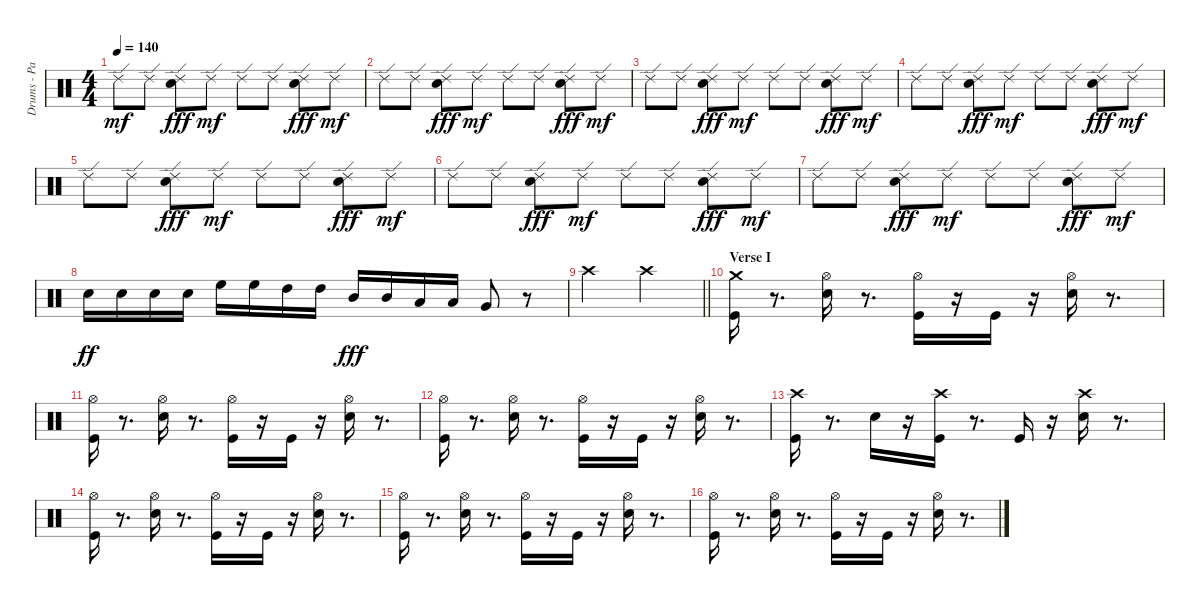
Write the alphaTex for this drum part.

\track ("Drums - Paice" "Drums - Pa") {instrument percussion}
\staff {score}
\articulation defaults
\ts (4 4)
\tempo 140
\clef neutral
\ks c "Ride (edge) 2".8{dy mf} "Ride (edge) 2".8
("Ride (edge) 2" "Electric Snare (hit)").8{dy fff} "Ride (edge) 2".8{dy mf} "Ride (edge) 2".8 "Ride (edge) 2".8 ("Ride (edge) 2" "Electric Snare (hit)").8{dy fff} "Ride (edge) 2".8{dy mf} |
"Ride (edge) 2".8 "Ride (edge) 2".8 ("Ride (edge) 2" "Electric Snare (hit)").8{dy fff} "Ride (edge) 2".8{dy mf} "Ride (edge) 2".8 "Ride (edge) 2".8 ("Ride (edge) 2" "Electric Snare (hit)").8{dy fff} "Ride (edge) 2".8{dy mf} |
"Ride (edge) 2".8 "Ride (edge) 2".8 ("Ride (edge) 2" "Electric Snare (hit)").8{dy fff} "Ride (edge) 2".8{dy mf} "Ride (edge) 2".8 "Ride (edge) 2".8 ("Ride (edge) 2" "Electric Snare (hit)").8{dy fff} "Ride (edge) 2".8{dy mf} |
"Ride (edge) 2".8 "Ride (edge) 2".8 ("Ride (edge) 2" "Electric Snare (hit)").8{dy fff} "Ride (edge) 2".8{dy mf} "Ride (edge) 2".8 "Ride (edge) 2".8 ("Ride (edge) 2" "Electric Snare (hit)").8{dy fff} "Ride (edge) 2".8{dy mf} |
"Ride (edge) 2".8 "Ride (edge) 2".8 ("Ride (edge) 2" "Electric Snare (hit)").8{dy fff} "Ride (edge) 2".8{dy mf} "Ride (edge) 2".8 "Ride (edge) 2".8 ("Ride (edge) 2" "Electric Snare (hit)").8{dy fff} "Ride (edge) 2".8{dy mf} |
"Ride (edge) 2".8 "Ride (edge) 2".8 ("Ride (edge) 2" "Electric Snare (hit)").8{dy fff} "Ride (edge) 2".8{dy mf} "Ride (edge) 2".8 "Ride (edge) 2".8 ("Ride (edge) 2" "Electric Snare (hit)").8{dy fff} "Ride (edge) 2".8{dy mf} |
"Ride (edge) 2".8 "Ride (edge) 2".8 ("Ride (edge) 2" "Electric Snare (hit)").8{dy fff} "Ride (edge) 2".8{dy mf} "Ride (edge) 2".8 "Ride (edge) 2".8 ("Ride (edge) 2" "Electric Snare (hit)").8{dy fff} "Ride (edge) 2".8{dy mf} |
"Electric Snare (hit)".16{dy ff} "Electric Snare (hit)".16 "Electric Snare (hit)".16 "Electric Snare (hit)".16 "High Floor Tom (hit)".16 "High Floor Tom (hit)".16 "High Tom (hit)".16 "High Tom (hit)".16 "Mid Tom (hit)".16{dy fff} "Mid Tom (hit)".16 "Low Tom (hit)".16 "Low Tom (hit)".16 "Very Low Tom (hit)".8 r.8 |
\barLineRight lightlight "Crash high (hit)".2{volume 14} "Crash high (hit)".2
|
\section ("" "Verse I")
("Kick (hit)" "Crash medium (hit)").16 r.8{d} ("Snare (hit) 2" "Hi-Hat (open)").16 r.8{d} ("Kick (hit)" "Hi-Hat (open)").16 r.16 "Kick (hit)".16 r.16 ("Hi-Hat (open)" "Snare (hit) 2").16 r.8{d} |
("Hi-Hat (open)" "Kick (hit)").16 r.8{d} ("Hi-Hat (open)" "Snare (hit) 2").16 r.8{d} ("Hi-Hat (open)" "Kick (hit)").16 r.16 "Kick (hit)".16 r.16 ("Snare (hit) 2" "Hi-Hat (open)").16 r.8{d} |
("Hi-Hat (open)" "Kick (hit)").16 r.8{d} ("Hi-Hat (open)" "Snare (hit) 2").16 r.8{d} ("Hi-Hat (open)" "Kick (hit)").16 r.16 "Kick (hit)".16 r.16 ("Snare (hit) 2" "Hi-Hat (open)").16 r.8{d} |
("Kick (hit)" "Crash high (hit)").16 r.8{d} "Snare (hit) 2".16 r.16 ("Kick (hit)" "Crash high (hit)").16 r.8{d} "Kick (hit)".16 r.16 ("Snare (hit) 2" "Crash high (hit)").16 r.8{d} |
("Hi-Hat (open)" "Kick (hit)").16 r.8{d} ("Hi-Hat (open)" "Snare (hit) 2").16 r.8{d} ("Hi-Hat (open)" "Kick (hit)").16 r.16 "Kick (hit)".16 r.16 ("Hi-Hat (open)" "Snare (hit) 2").16 r.8{d} |
("Kick (hit)" "Hi-Hat (open)").16 r.8{d} ("Snare (hit) 2" "Hi-Hat (open)").16 r.8{d} ("Kick (hit)" "Hi-Hat (open)").16 r.16 "Kick (hit)".16 r.16 ("Hi-Hat (open)" "Snare (hit) 2").16 r.8{d} |
("Kick (hit)" "Hi-Hat (open)").16 r.8{d} ("Hi-Hat (open)" "Snare (hit) 2").16 r.8{d} ("Hi-Hat (open)" "Kick (hit)").16 r.16 "Kick (hit)".16 r.16 ("Hi-Hat (open)" "Snare (hit) 2").16 r.8{d}
